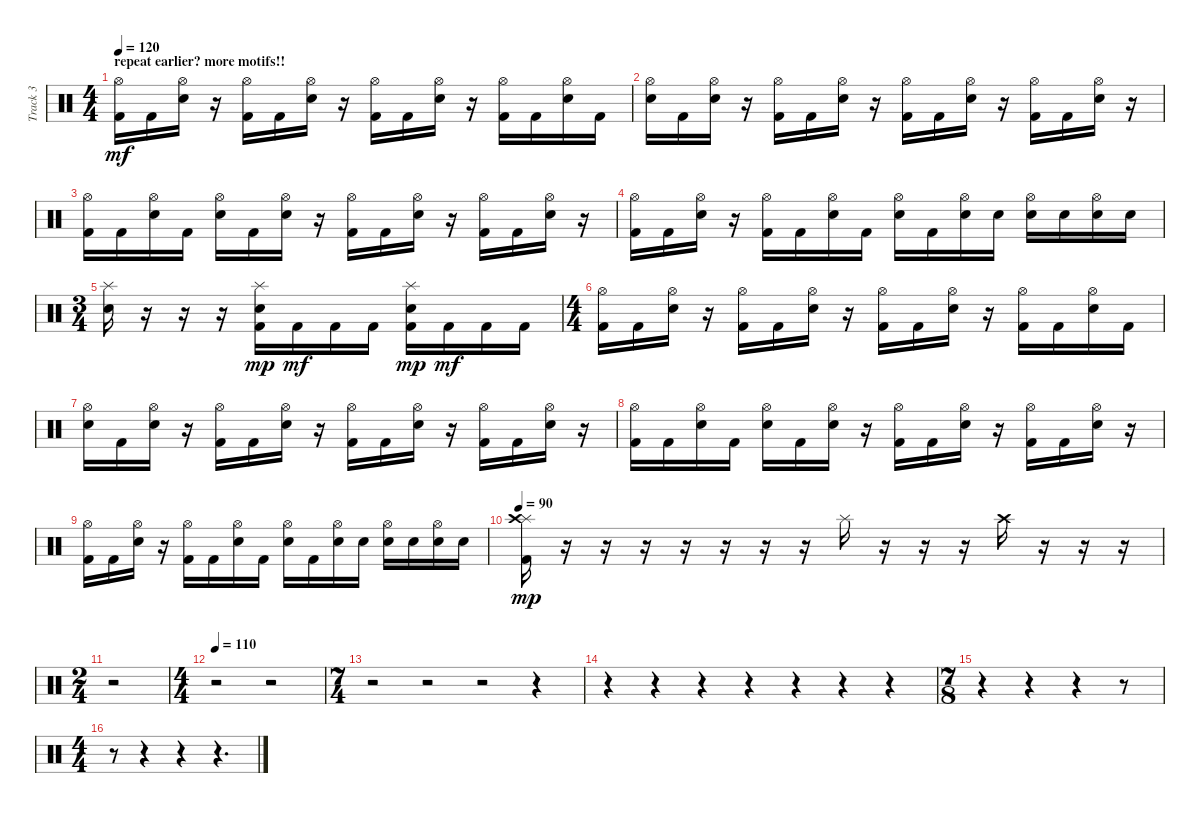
\track ("Track 3" "Track 3") {instrument percussion}
\staff {score}
\articulation defaults
\ts (4 4)
\section ("" "repeat earlier? more motifs!!")
\tempo 120
\clef neutral
\ks c
("Hi-Hat (open)" "Kick (hit) 2").16{dy mf} "Kick (hit) 2".16 ("Hi-Hat (open)" "Electric Snare (hit)").16 r.16 ("Hi-Hat (open)" "Kick (hit) 2").16 "Kick (hit) 2".16 ("Hi-Hat (open)" "Electric Snare (hit)").16 r.16 ("Hi-Hat (open)" "Kick (hit) 2").16 "Kick (hit) 2".16 ("Hi-Hat (open)" "Electric Snare (hit)").16 r.16 ("Hi-Hat (open)" "Kick (hit) 2").16 "Kick (hit) 2".16 ("Hi-Hat (open)" "Electric Snare (hit)").16 "Kick (hit) 2".16 |
("Hi-Hat (open)" "Electric Snare (hit)").16 "Kick (hit) 2".16 ("Hi-Hat (open)" "Electric Snare (hit)").16 r.16 ("Hi-Hat (open)" "Kick (hit) 2").16 "Kick (hit) 2".16 ("Hi-Hat (open)" "Electric Snare (hit)").16 r.16 ("Hi-Hat (open)" "Kick (hit) 2").16 "Kick (hit) 2".16 ("Hi-Hat (open)" "Electric Snare (hit)").16 r.16 ("Hi-Hat (open)" "Kick (hit) 2").16 "Kick (hit) 2".16 ("Hi-Hat (open)" "Electric Snare (hit)").16 r.16 |
("Hi-Hat (open)" "Kick (hit) 2").16 "Kick (hit) 2".16 ("Hi-Hat (open)" "Electric Snare (hit)").16 "Kick (hit) 2".16 ("Hi-Hat (open)" "Electric Snare (hit)").16 "Kick (hit) 2".16 ("Hi-Hat (open)" "Electric Snare (hit)").16 r.16 ("Hi-Hat (open)" "Kick (hit) 2").16 "Kick (hit) 2".16 ("Hi-Hat (open)" "Electric Snare (hit)").16 r.16 ("Hi-Hat (open)" "Kick (hit) 2").16 "Kick (hit) 2".16 ("Hi-Hat (open)" "Electric Snare (hit)").16 r.16 |
("Hi-Hat (open)" "Kick (hit) 2").16 "Kick (hit) 2".16 ("Hi-Hat (open)" "Electric Snare (hit)").16 r.16 ("Hi-Hat (open)" "Kick (hit) 2").16 "Kick (hit) 2".16 ("Hi-Hat (open)" "Electric Snare (hit)").16 "Kick (hit) 2".16 ("Hi-Hat (open)" "Electric Snare (hit)").16 "Kick (hit) 2".16 ("Hi-Hat (open)" "Electric Snare (hit)").16 "Electric Snare (hit)".16 ("Hi-Hat (open)" "Electric Snare (hit)").16 "Electric Snare (hit)".16 ("Hi-Hat (open)" "Electric Snare (hit)").16 "Electric Snare (hit)".16 |
\ts (3 4)
("Splash (hit)" "Electric Snare (hit)").16 r.16 r.16 r.16 ("Splash (hit)" "Kick (hit) 2" "Electric Snare (hit)").16{dy mp} "Kick (hit) 2".16{dy mf} "Kick (hit) 2".16 "Kick (hit) 2".16 ("Splash (hit)" "Kick (hit) 2" "Electric Snare (hit)").16{dy mp} "Kick (hit) 2".16{dy mf} "Kick (hit) 2".16 "Kick (hit) 2".16 |
\ts (4 4)
("Hi-Hat (open)" "Kick (hit) 2").16 "Kick (hit) 2".16 ("Hi-Hat (open)" "Electric Snare (hit)").16 r.16 ("Hi-Hat (open)" "Kick (hit) 2").16 "Kick (hit) 2".16 ("Hi-Hat (open)" "Electric Snare (hit)").16 r.16 ("Hi-Hat (open)" "Kick (hit) 2").16 "Kick (hit) 2".16 ("Hi-Hat (open)" "Electric Snare (hit)").16 r.16 ("Hi-Hat (open)" "Kick (hit) 2").16 "Kick (hit) 2".16 ("Hi-Hat (open)" "Electric Snare (hit)").16 "Kick (hit) 2".16 |
("Hi-Hat (open)" "Electric Snare (hit)").16 "Kick (hit) 2".16 ("Hi-Hat (open)" "Electric Snare (hit)").16 r.16 ("Hi-Hat (open)" "Kick (hit) 2").16 "Kick (hit) 2".16 ("Hi-Hat (open)" "Electric Snare (hit)").16 r.16 ("Hi-Hat (open)" "Kick (hit) 2").16 "Kick (hit) 2".16 ("Hi-Hat (open)" "Electric Snare (hit)").16 r.16 ("Hi-Hat (open)" "Kick (hit) 2").16 "Kick (hit) 2".16 ("Hi-Hat (open)" "Electric Snare (hit)").16 r.16 |
("Hi-Hat (open)" "Kick (hit) 2").16 "Kick (hit) 2".16 ("Hi-Hat (open)" "Electric Snare (hit)").16 "Kick (hit) 2".16 ("Hi-Hat (open)" "Electric Snare (hit)").16 "Kick (hit) 2".16 ("Hi-Hat (open)" "Electric Snare (hit)").16 r.16 ("Hi-Hat (open)" "Kick (hit) 2").16 "Kick (hit) 2".16 ("Hi-Hat (open)" "Electric Snare (hit)").16 r.16 ("Hi-Hat (open)" "Kick (hit) 2").16 "Kick (hit) 2".16 ("Hi-Hat (open)" "Electric Snare (hit)").16 r.16 |
("Hi-Hat (open)" "Kick (hit) 2").16 "Kick (hit) 2".16 ("Hi-Hat (open)" "Electric Snare (hit)").16 r.16 ("Hi-Hat (open)" "Kick (hit) 2").16 "Kick (hit) 2".16 ("Hi-Hat (open)" "Electric Snare (hit)").16 "Kick (hit) 2".16 ("Hi-Hat (open)" "Electric Snare (hit)").16 "Kick (hit) 2".16 ("Hi-Hat (open)" "Electric Snare (hit)").16 "Electric Snare (hit)".16 ("Hi-Hat (open)" "Electric Snare (hit)").16 "Electric Snare (hit)".16 ("Hi-Hat (open)" "Electric Snare (hit)").16 "Electric Snare (hit)".16 |
\tempo 90
("Splash (hit)" "Crash high (hit)" "Kick (hit) 2").16{dy mp} r.16 r.16 r.16 r.16 r.16 r.16 r.16 "Splash (hit)".16 r.16 r.16 r.16 "Crash high (hit)".16 r.16 r.16 r.16 |
\ts (2 4)
r.2 |
\ts (4 4)
\tempo 110
r.2 r.2 |
\ts (7 4)
r.2 r.2 r.2 r.4 |
r.4 r.4 r.4 r.4 r.4 r.4 r.4 |
\ts (7 8)
r.4 r.4 r.4 r.8 |
\ts (4 4)
r.8 r.4 r.4 r.4{d}
